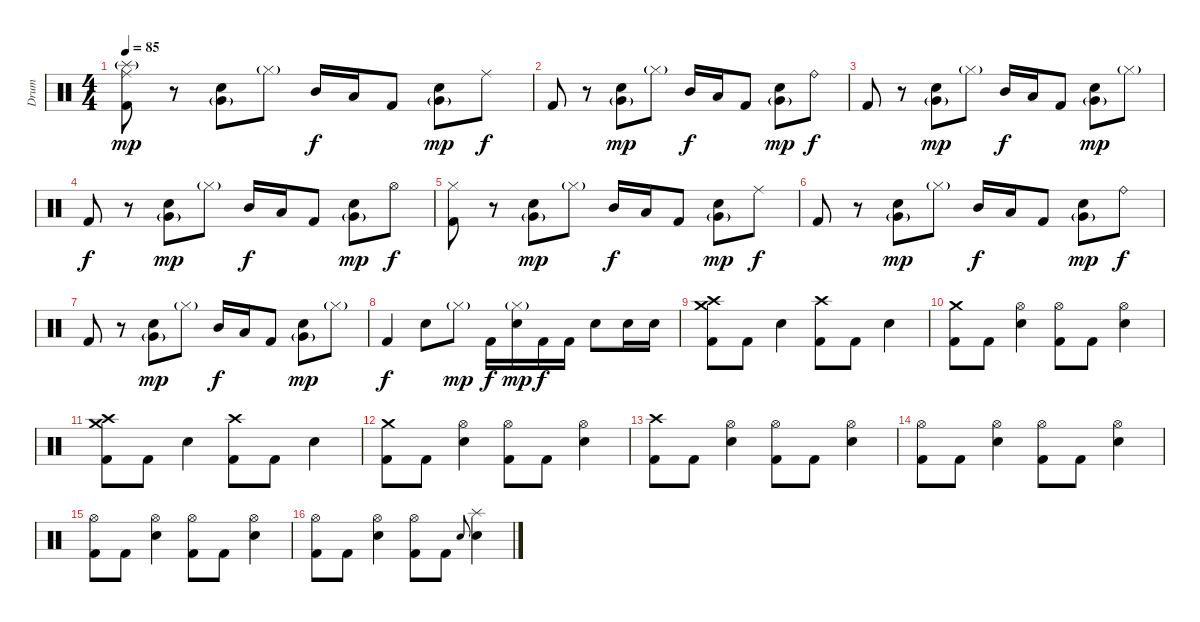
\track ("Drum" "Drum") {instrument percussion}
\staff {score}
\articulation defaults
\ts (4 4)
\section ("" "")
\tempo 85
\clef neutral
\ks c
("Splash (hit)"{g} "Ride (middle)" "Kick (hit) 2").8{dy mp} r.8 ("Very Low Tom (hit)"{g} "Electric Snare (hit)").8 "Hi-Hat (closed)"{g}.8 "Mid Tom (hit)".16{dy f} "Low Tom (hit)".16 "Kick (hit) 2".8 ("Very Low Tom (hit)"{g} "Electric Snare (hit)").8{dy mp} "Ride (middle)".8{dy f} |
"Kick (hit) 2".8 r.8 ("Very Low Tom (hit)"{g} "Electric Snare (hit)").8{dy mp} "Hi-Hat (closed)"{g}.8 "Mid Tom (hit)".16{dy f} "Low Tom (hit)".16 "Kick (hit) 2".8 ("Very Low Tom (hit)"{g} "Electric Snare (hit)").8{dy mp} "Ride (bell)".8{dy f} |
"Kick (hit) 2".8 r.8 ("Very Low Tom (hit)"{g} "Electric Snare (hit)").8{dy mp} "Hi-Hat (closed)"{g}.8 "Mid Tom (hit)".16{dy f} "Low Tom (hit)".16 "Kick (hit) 2".8 ("Very Low Tom (hit)"{g} "Electric Snare (hit)").8{dy mp} "Hi-Hat (closed)"{g}.8 |
"Kick (hit) 2".8{dy f} r.8 ("Very Low Tom (hit)"{g} "Electric Snare (hit)").8{dy mp} "Hi-Hat (closed)"{g}.8 "Mid Tom (hit)".16{dy f} "Low Tom (hit)".16 "Kick (hit) 2".8 ("Very Low Tom (hit)"{g} "Electric Snare (hit)").8{dy mp} "Hi-Hat (open)".8{dy f} |
("Hi-Hat (closed)" "Kick (hit) 2").8 r.8 ("Very Low Tom (hit)"{g} "Electric Snare (hit)").8{dy mp} "Hi-Hat (closed)"{g}.8 "Mid Tom (hit)".16{dy f} "Low Tom (hit)".16 "Kick (hit) 2".8 ("Very Low Tom (hit)"{g} "Electric Snare (hit)").8{dy mp} "Ride (middle)".8{dy f} |
"Kick (hit) 2".8 r.8 ("Very Low Tom (hit)"{g} "Electric Snare (hit)").8{dy mp} "Hi-Hat (closed)"{g}.8 "Mid Tom (hit)".16{dy f} "Low Tom (hit)".16 "Kick (hit) 2".8 ("Very Low Tom (hit)"{g} "Electric Snare (hit)").8{dy mp} "Ride (bell)".8{dy f} |
"Kick (hit) 2".8 r.8 ("Very Low Tom (hit)"{g} "Electric Snare (hit)").8{dy mp} "Hi-Hat (closed)"{g}.8 "Mid Tom (hit)".16{dy f} "Low Tom (hit)".16 "Kick (hit) 2".8 ("Very Low Tom (hit)"{g} "Electric Snare (hit)").8{dy mp} "Hi-Hat (closed)"{g}.8 |
"Kick (hit) 2".4{dy f} "Electric Snare (hit)".8 "Hi-Hat (closed)"{g}.8{dy mp} "Kick (hit) 2".16{dy f} ("Hi-Hat (closed)"{g} "Electric Snare (hit)").16{dy mp} "Kick (hit) 2".16{dy f} "Kick (hit) 2".16 "Electric Snare (hit)".8 "Electric Snare (hit)".16 "Electric Snare (hit)".16 |
\section ("" "")
("Crash medium (hit)" "Crash high (hit)" "Kick (hit) 2").8 "Kick (hit) 2".8 "Electric Snare (hit)".4 ("Crash high (hit)" "Kick (hit) 2").8 "Kick (hit) 2".8 "Electric Snare (hit)".4 |
("Crash medium (hit)" "Kick (hit) 2").8 "Kick (hit) 2".8 ("Hi-Hat (open)" "Electric Snare (hit)").4 ("Hi-Hat (open)" "Kick (hit) 2").8 "Kick (hit) 2".8 ("Hi-Hat (open)" "Electric Snare (hit)").4 |
("Crash medium (hit)" "Crash high (hit)" "Kick (hit) 2").8 "Kick (hit) 2".8 "Electric Snare (hit)".4 ("Crash high (hit)" "Kick (hit) 2").8 "Kick (hit) 2".8 "Electric Snare (hit)".4 |
("Crash medium (hit)" "Kick (hit) 2").8 "Kick (hit) 2".8 ("Hi-Hat (open)" "Electric Snare (hit)").4 ("Hi-Hat (open)" "Kick (hit) 2").8 "Kick (hit) 2".8 ("Hi-Hat (open)" "Electric Snare (hit)").4 |
("Crash high (hit)" "Kick (hit) 2").8 "Kick (hit) 2".8 ("Hi-Hat (open)" "Electric Snare (hit)").4 ("Hi-Hat (open)" "Kick (hit) 2").8 "Kick (hit) 2".8 ("Hi-Hat (open)" "Electric Snare (hit)").4 |
("Hi-Hat (open)" "Kick (hit) 2").8 "Kick (hit) 2".8 ("Hi-Hat (open)" "Electric Snare (hit)").4 ("Hi-Hat (open)" "Kick (hit) 2").8 "Kick (hit) 2".8 ("Hi-Hat (open)" "Electric Snare (hit)").4 |
("Hi-Hat (open)" "Kick (hit) 2").8 "Kick (hit) 2".8 ("Hi-Hat (open)" "Electric Snare (hit)").4 ("Hi-Hat (open)" "Kick (hit) 2").8 "Kick (hit) 2".8 ("Hi-Hat (open)" "Electric Snare (hit)").4 |
("Hi-Hat (open)" "Kick (hit) 2").8 "Kick (hit) 2".8 ("Hi-Hat (open)" "Electric Snare (hit)").4 ("Hi-Hat (open)" "Kick (hit) 2").8 "Kick (hit) 2".8 "Electric Snare (hit)".8{gr onbeat} ("Splash (hit)" "Electric Snare (hit)").4
